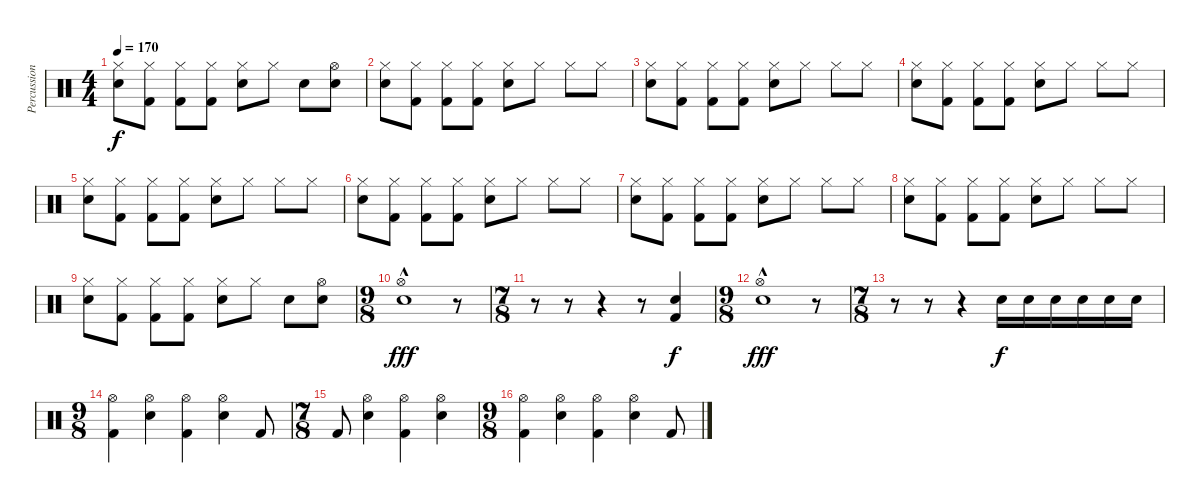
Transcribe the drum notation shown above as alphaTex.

\track ("Percussion" "Percussion") {instrument percussion}
\staff {score}
\articulation defaults
\ts (4 4)
\tempo 170
\clef neutral
\ks c
("Snare (hit) 2" "Hi-Hat (closed)").8{dy f} ("Kick (hit) 2" "Hi-Hat (closed)").8 ("Kick (hit) 2" "Hi-Hat (closed)").8 ("Kick (hit) 2" "Hi-Hat (closed)").8 ("Snare (hit) 2" "Hi-Hat (closed)").8 "Hi-Hat (closed)".8 "Snare (hit) 2".8 ("Snare (hit) 2" "Hi-Hat (open)").8 |
("Snare (hit) 2" "Hi-Hat (closed)").8 ("Kick (hit) 2" "Hi-Hat (closed)").8 ("Kick (hit) 2" "Hi-Hat (closed)").8 ("Kick (hit) 2" "Hi-Hat (closed)").8 ("Snare (hit) 2" "Hi-Hat (closed)").8 "Hi-Hat (closed)".8 "Hi-Hat (closed)".8 "Hi-Hat (closed)".8 |
("Snare (hit) 2" "Hi-Hat (closed)").8 ("Kick (hit) 2" "Hi-Hat (closed)").8 ("Kick (hit) 2" "Hi-Hat (closed)").8 ("Kick (hit) 2" "Hi-Hat (closed)").8 ("Snare (hit) 2" "Hi-Hat (closed)").8 "Hi-Hat (closed)".8 "Hi-Hat (closed)".8 "Hi-Hat (closed)".8 |
("Snare (hit) 2" "Hi-Hat (closed)").8 ("Kick (hit) 2" "Hi-Hat (closed)").8 ("Kick (hit) 2" "Hi-Hat (closed)").8 ("Kick (hit) 2" "Hi-Hat (closed)").8 ("Snare (hit) 2" "Hi-Hat (closed)").8 "Hi-Hat (closed)".8 "Hi-Hat (closed)".8 "Hi-Hat (closed)".8 |
("Snare (hit) 2" "Hi-Hat (closed)").8 ("Kick (hit) 2" "Hi-Hat (closed)").8 ("Kick (hit) 2" "Hi-Hat (closed)").8 ("Kick (hit) 2" "Hi-Hat (closed)").8 ("Snare (hit) 2" "Hi-Hat (closed)").8 "Hi-Hat (closed)".8 "Hi-Hat (closed)".8 "Hi-Hat (closed)".8 |
("Snare (hit) 2" "Hi-Hat (closed)").8 ("Kick (hit) 2" "Hi-Hat (closed)").8 ("Kick (hit) 2" "Hi-Hat (closed)").8 ("Kick (hit) 2" "Hi-Hat (closed)").8 ("Snare (hit) 2" "Hi-Hat (closed)").8 "Hi-Hat (closed)".8 "Hi-Hat (closed)".8 "Hi-Hat (closed)".8 |
("Snare (hit) 2" "Hi-Hat (closed)").8 ("Kick (hit) 2" "Hi-Hat (closed)").8 ("Kick (hit) 2" "Hi-Hat (closed)").8 ("Kick (hit) 2" "Hi-Hat (closed)").8 ("Snare (hit) 2" "Hi-Hat (closed)").8 "Hi-Hat (closed)".8 "Hi-Hat (closed)".8 "Hi-Hat (closed)".8 |
("Snare (hit) 2" "Hi-Hat (closed)").8 ("Kick (hit) 2" "Hi-Hat (closed)").8 ("Kick (hit) 2" "Hi-Hat (closed)").8 ("Kick (hit) 2" "Hi-Hat (closed)").8 ("Snare (hit) 2" "Hi-Hat (closed)").8 "Hi-Hat (closed)".8 "Hi-Hat (closed)".8 "Hi-Hat (closed)".8 |
("Snare (hit) 2" "Hi-Hat (closed)").8 ("Kick (hit) 2" "Hi-Hat (closed)").8 ("Kick (hit) 2" "Hi-Hat (closed)").8 ("Kick (hit) 2" "Hi-Hat (closed)").8 ("Snare (hit) 2" "Hi-Hat (closed)").8 "Hi-Hat (closed)".8 "Snare (hit) 2".8 ("Snare (hit) 2" "Hi-Hat (open)").8 |
\ts (9 8)
("Snare (hit) 2" "Hi-Hat (open)"{hac}).1{dy fff} r.8 |
\ts (7 8)
r.8 r.8 r.4 r.8 ("Snare (hit) 2" "Kick (hit) 2").4{dy f} |
\ts (9 8)
("Snare (hit) 2" "Hi-Hat (open)"{hac}).1{dy fff} r.8 |
\ts (7 8)
r.8 r.8 r.4 "Snare (hit) 2".16{dy f} "Snare (hit) 2".16 "Snare (hit) 2".16 "Snare (hit) 2".16 "Snare (hit) 2".16 "Snare (hit) 2".16 |
\ts (9 8)
("Kick (hit) 2" "Hi-Hat (open)").4 ("Snare (hit) 2" "Hi-Hat (open)").4 ("Kick (hit) 2" "Hi-Hat (open)").4 ("Snare (hit) 2" "Hi-Hat (open)").4 "Kick (hit) 2".8 |
\ts (7 8)
"Kick (hit) 2".8 ("Snare (hit) 2" "Hi-Hat (open)").4 ("Kick (hit) 2" "Hi-Hat (open)").4 ("Snare (hit) 2" "Hi-Hat (open)").4 |
\ts (9 8)
("Kick (hit) 2" "Hi-Hat (open)").4 ("Snare (hit) 2" "Hi-Hat (open)").4 ("Kick (hit) 2" "Hi-Hat (open)").4 ("Snare (hit) 2" "Hi-Hat (open)").4 "Kick (hit) 2".8
